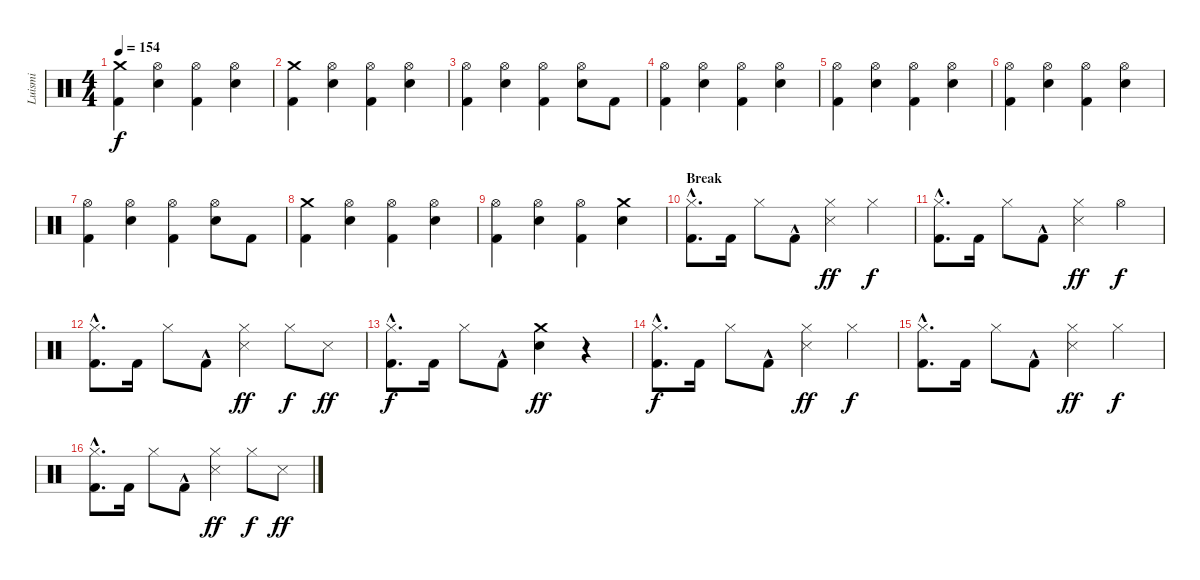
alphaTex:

\track ("Luismi" "Luismi") {instrument percussion}
\staff {score}
\articulation defaults
\ts (4 4)
\tempo 154
\clef neutral
\ks c
("Crash medium (hit)" "Kick (hit) 2").4{dy f} ("Hi-Hat (open)" "Snare (hit) 2").4 ("Hi-Hat (open)" "Kick (hit) 2").4 ("Hi-Hat (open)" "Snare (hit) 2").4 |
("Crash medium (hit)" "Kick (hit) 2").4 ("Hi-Hat (open)" "Snare (hit) 2").4 ("Hi-Hat (open)" "Kick (hit) 2").4 ("Hi-Hat (open)" "Snare (hit) 2").4 |
("Hi-Hat (open)" "Kick (hit) 2").4 ("Hi-Hat (open)" "Snare (hit) 2").4 ("Hi-Hat (open)" "Kick (hit) 2").4 ("Hi-Hat (open)" "Snare (hit) 2").8 "Kick (hit) 2".8 |
("Hi-Hat (open)" "Kick (hit) 2").4 ("Hi-Hat (open)" "Snare (hit) 2").4 ("Hi-Hat (open)" "Kick (hit) 2").4 ("Hi-Hat (open)" "Snare (hit) 2").4 |
("Hi-Hat (open)" "Kick (hit) 2").4 ("Hi-Hat (open)" "Snare (hit) 2").4 ("Hi-Hat (open)" "Kick (hit) 2").4 ("Hi-Hat (open)" "Snare (hit) 2").4 |
("Hi-Hat (open)" "Kick (hit) 2").4 ("Hi-Hat (open)" "Snare (hit) 2").4 ("Hi-Hat (open)" "Kick (hit) 2").4 ("Hi-Hat (open)" "Snare (hit) 2").4 |
("Hi-Hat (open)" "Kick (hit) 2").4 ("Hi-Hat (open)" "Snare (hit) 2").4 ("Hi-Hat (open)" "Kick (hit) 2").4 ("Hi-Hat (open)" "Snare (hit) 2").8 "Kick (hit) 2".8 |
("Crash medium (hit)" "Kick (hit) 2").4 ("Hi-Hat (open)" "Snare (hit) 2").4 ("Hi-Hat (open)" "Kick (hit) 2").4 ("Hi-Hat (open)" "Snare (hit) 2").4 |
("Hi-Hat (open)" "Kick (hit) 2").4 ("Hi-Hat (open)" "Snare (hit) 2").4 ("Hi-Hat (open)" "Kick (hit) 2").4 ("Crash medium (hit)" "Snare (hit) 2").4 |
\section ("" "Break")
("Hi-Hat (closed)"{hac} "Kick (hit) 2"{hac}).8{d} "Kick (hit) 2".16 "Hi-Hat (closed)".8 "Kick (hit) 2"{hac}.8 ("Hi-Hat (closed)" "Snare (side stick) 3").4{dy ff} "Hi-Hat (closed)".4{dy f} |
("Hi-Hat (closed)"{hac} "Kick (hit) 2"{hac}).8{d} "Kick (hit) 2".16 "Hi-Hat (closed)".8 "Kick (hit) 2"{hac}.8 ("Hi-Hat (closed)" "Snare (side stick) 3").4{dy ff} "Hi-Hat (open)".4{dy f} |
("Hi-Hat (closed)"{hac} "Kick (hit) 2"{hac}).8{d} "Kick (hit) 2".16 "Hi-Hat (closed)".8 "Kick (hit) 2"{hac}.8 ("Hi-Hat (closed)" "Snare (side stick) 3").4{dy ff} "Hi-Hat (closed)".8{dy f} "Snare (side stick) 3".8{dy ff} |
("Hi-Hat (closed)"{hac} "Kick (hit) 2"{hac}).8{d dy f} "Kick (hit) 2".16 "Hi-Hat (closed)".8 "Kick (hit) 2"{hac}.8 ("Crash medium (hit)" "Snare (hit) 2").4{dy ff} r.4 |
("Hi-Hat (closed)"{hac} "Kick (hit) 2"{hac}).8{d dy f} "Kick (hit) 2".16 "Hi-Hat (closed)".8 "Kick (hit) 2"{hac}.8 ("Hi-Hat (closed)" "Snare (side stick) 3").4{dy ff} "Hi-Hat (closed)".4{dy f} |
("Hi-Hat (closed)"{hac} "Kick (hit) 2"{hac}).8{d} "Kick (hit) 2".16 "Hi-Hat (closed)".8 "Kick (hit) 2"{hac}.8 ("Hi-Hat (closed)" "Snare (side stick) 3").4{dy ff} "Hi-Hat (closed)".4{dy f} |
("Hi-Hat (closed)"{hac} "Kick (hit) 2"{hac}).8{d} "Kick (hit) 2".16 "Hi-Hat (closed)".8 "Kick (hit) 2"{hac}.8 ("Hi-Hat (closed)" "Snare (side stick) 3").4{dy ff} "Hi-Hat (closed)".8{dy f} "Snare (side stick) 3".8{dy ff}
